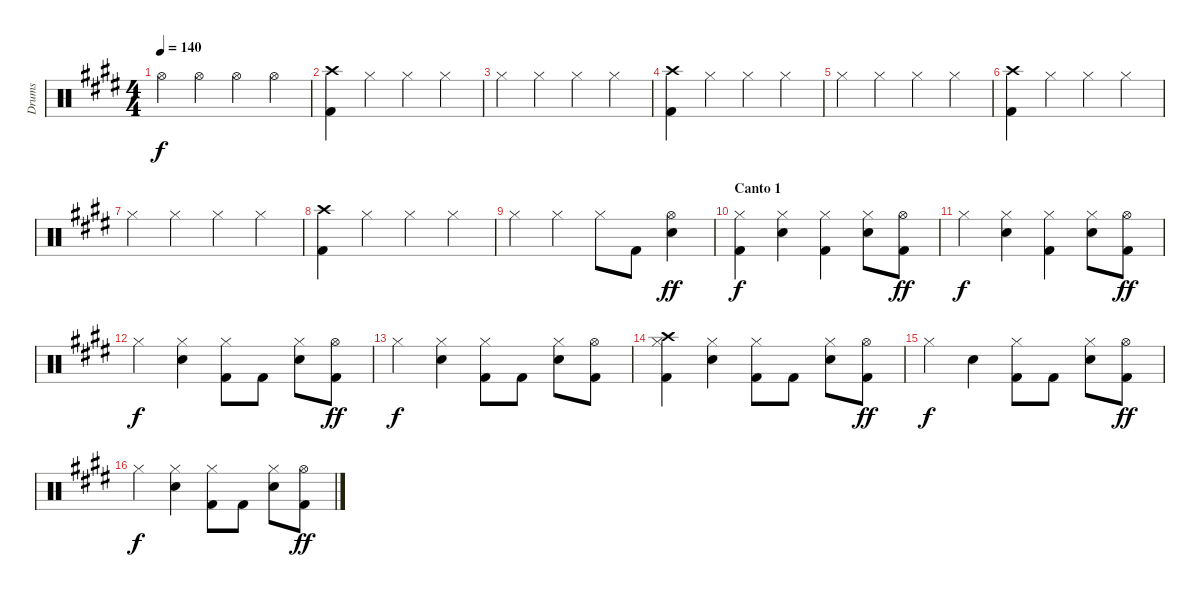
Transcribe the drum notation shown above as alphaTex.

\track ("Drums" "Drums") {instrument percussion}
\staff {score}
\articulation defaults
\ts (4 4)
\tempo 140
\clef neutral
\ks c#minor "Hi-Hat (open)".4{dy f} "Hi-Hat (open)".4 "Hi-Hat (open)".4 "Hi-Hat (open)".4
|
("Crash high (hit)" "Kick (hit) 2").4 "Hi-Hat (closed)".4 "Hi-Hat (closed)".4 "Hi-Hat (closed)".4 |
"Hi-Hat (closed)".4 "Hi-Hat (closed)".4 "Hi-Hat (closed)".4 "Hi-Hat (closed)".4 |
("Crash high (hit)" "Kick (hit) 2").4 "Hi-Hat (closed)".4 "Hi-Hat (closed)".4 "Hi-Hat (closed)".4 |
"Hi-Hat (closed)".4 "Hi-Hat (closed)".4 "Hi-Hat (closed)".4 "Hi-Hat (closed)".4 |
("Crash high (hit)" "Kick (hit) 2").4 "Hi-Hat (closed)".4 "Hi-Hat (closed)".4 "Hi-Hat (closed)".4 |
"Hi-Hat (closed)".4 "Hi-Hat (closed)".4 "Hi-Hat (closed)".4 "Hi-Hat (closed)".4 |
("Crash high (hit)" "Kick (hit) 2").4 "Hi-Hat (closed)".4 "Hi-Hat (closed)".4 "Hi-Hat (closed)".4 |
"Hi-Hat (closed)".4 "Hi-Hat (closed)".4 "Hi-Hat (closed)".8 "Kick (hit) 2".8 ("Hi-Hat (open)" "Snare (hit) 2").4{dy ff} |
\section ("" "Canto 1")
("Hi-Hat (closed)" "Kick (hit) 2").4{dy f} ("Hi-Hat (closed)" "Snare (hit) 2").4 ("Hi-Hat (closed)" "Kick (hit) 2").4 ("Hi-Hat (closed)" "Snare (hit) 2").8 ("Hi-Hat (open)" "Kick (hit) 2").8{dy ff} |
"Hi-Hat (closed)".4{dy f} ("Hi-Hat (closed)" "Snare (hit) 2").4 ("Hi-Hat (closed)" "Kick (hit) 2").4 ("Hi-Hat (closed)" "Snare (hit) 2").8 ("Hi-Hat (open)" "Kick (hit) 2").8{dy ff} |
"Hi-Hat (closed)".4{dy f} ("Hi-Hat (closed)" "Snare (hit) 2").4 ("Hi-Hat (closed)" "Kick (hit) 2").8 "Kick (hit) 2".8 ("Hi-Hat (closed)" "Snare (hit) 2").8 ("Hi-Hat (open)" "Kick (hit) 2").8{dy ff} |
"Hi-Hat (closed)".4{dy f} ("Hi-Hat (closed)" "Snare (hit) 2").4 ("Hi-Hat (closed)" "Kick (hit) 2").8 "Kick (hit) 2".8 ("Hi-Hat (closed)" "Snare (hit) 2").8 ("Hi-Hat (open)" "Kick (hit) 2").8 |
("Hi-Hat (closed)" "Crash high (hit)" "Kick (hit) 2").4 ("Hi-Hat (closed)" "Snare (hit) 2").4 ("Hi-Hat (closed)" "Kick (hit) 2").8 "Kick (hit) 2".8 ("Hi-Hat (closed)" "Snare (hit) 2").8 ("Hi-Hat (open)" "Kick (hit) 2").8{dy ff} |
"Hi-Hat (closed)".4{dy f} "Snare (hit) 2".4 ("Hi-Hat (closed)" "Kick (hit) 2").8 "Kick (hit) 2".8 ("Hi-Hat (closed)" "Snare (hit) 2").8 ("Hi-Hat (open)" "Kick (hit) 2").8{dy ff} |
"Hi-Hat (closed)".4{dy f} ("Hi-Hat (closed)" "Snare (hit) 2").4 ("Hi-Hat (closed)" "Kick (hit) 2").8 "Kick (hit) 2".8 ("Hi-Hat (closed)" "Snare (hit) 2").8 ("Hi-Hat (open)" "Kick (hit) 2").8{dy ff}
